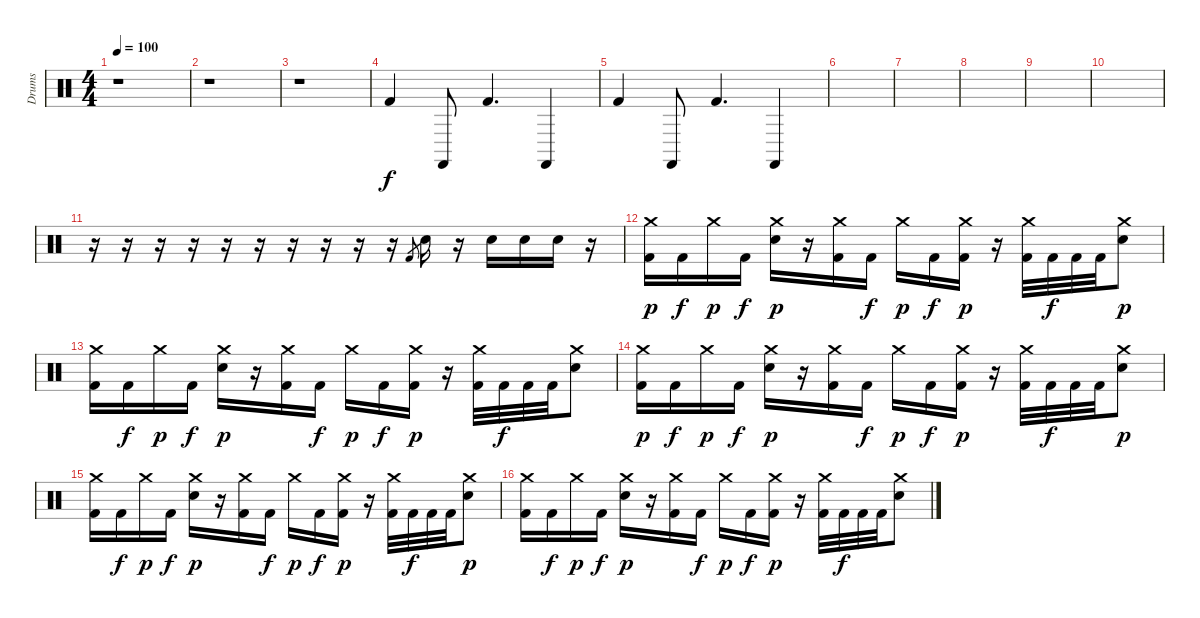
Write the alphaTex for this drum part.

\track ("Drums" "Drums") {instrument percussion}
\staff {score}
\articulation defaults
\ts (4 4)
\tempo 100
\clef neutral
\ks c
r.1{dy f} |
r.1 |
r.1 |
"Kick (hit) 2".4 "Castanets (hit)".8 "Kick (hit) 2".4{d} "Castanets (hit)".4 |
"Kick (hit) 2".4 "Castanets (hit)".8 "Kick (hit) 2".4{d} "Castanets (hit)".4 |
|
|
|
|
|
r.16 r.16 r.16 r.16 r.16 r.16 r.16 r.16 r.16 r.16 "Kick (hit) 2".8{gr} "Snare (hit) 2".16 r.16 "Snare (hit) 2".16 "Snare (hit) 2".16 "Snare (hit) 2".16 r.16 |
("Crash medium (hit)" "Kick (hit) 2").16{dy p} "Kick (hit) 2".16{dy f} "Crash medium (hit)".16{dy p} "Kick (hit) 2".16{dy f} ("Crash medium (hit)" "Snare (hit) 2").16{dy p} r.16 ("Crash medium (hit)" "Kick (hit) 2").16 "Kick (hit) 2".16{dy f} "Crash medium (hit)".16{dy p} "Kick (hit) 2".16{dy f} ("Crash medium (hit)" "Kick (hit) 2").16{dy p} r.16 ("Crash medium (hit)" "Kick (hit) 2").32 "Kick (hit) 2".32{dy f} "Kick (hit) 2".32 "Kick (hit) 2".32 ("Crash medium (hit)" "Snare (hit) 2").8{dy p} |
("Crash medium (hit)" "Kick (hit) 2").16 "Kick (hit) 2".16{dy f} "Crash medium (hit)".16{dy p} "Kick (hit) 2".16{dy f} ("Crash medium (hit)" "Snare (hit) 2").16{dy p} r.16 ("Crash medium (hit)" "Kick (hit) 2").16 "Kick (hit) 2".16{dy f} "Crash medium (hit)".16{dy p} "Kick (hit) 2".16{dy f} ("Crash medium (hit)" "Kick (hit) 2").16{dy p} r.16 ("Crash medium (hit)" "Kick (hit) 2").32 "Kick (hit) 2".32{dy f} "Kick (hit) 2".32 "Kick (hit) 2".32 ("Crash medium (hit)" "Snare (hit) 2").8 |
("Crash medium (hit)" "Kick (hit) 2").16{dy p} "Kick (hit) 2".16{dy f} "Crash medium (hit)".16{dy p} "Kick (hit) 2".16{dy f} ("Crash medium (hit)" "Snare (hit) 2").16{dy p} r.16 ("Crash medium (hit)" "Kick (hit) 2").16 "Kick (hit) 2".16{dy f} "Crash medium (hit)".16{dy p} "Kick (hit) 2".16{dy f} ("Crash medium (hit)" "Kick (hit) 2").16{dy p} r.16 ("Crash medium (hit)" "Kick (hit) 2").32 "Kick (hit) 2".32{dy f} "Kick (hit) 2".32 "Kick (hit) 2".32 ("Crash medium (hit)" "Snare (hit) 2").8{dy p} |
("Crash medium (hit)" "Kick (hit) 2").16 "Kick (hit) 2".16{dy f} "Crash medium (hit)".16{dy p} "Kick (hit) 2".16{dy f} ("Crash medium (hit)" "Snare (hit) 2").16{dy p} r.16 ("Crash medium (hit)" "Kick (hit) 2").16 "Kick (hit) 2".16{dy f} "Crash medium (hit)".16{dy p} "Kick (hit) 2".16{dy f} ("Crash medium (hit)" "Kick (hit) 2").16{dy p} r.16 ("Crash medium (hit)" "Kick (hit) 2").32 "Kick (hit) 2".32{dy f} "Kick (hit) 2".32 "Kick (hit) 2".32 ("Crash medium (hit)" "Snare (hit) 2").8{dy p} |
("Crash medium (hit)" "Kick (hit) 2").16 "Kick (hit) 2".16{dy f} "Crash medium (hit)".16{dy p} "Kick (hit) 2".16{dy f} ("Crash medium (hit)" "Snare (hit) 2").16{dy p} r.16 ("Crash medium (hit)" "Kick (hit) 2").16 "Kick (hit) 2".16{dy f} "Crash medium (hit)".16{dy p} "Kick (hit) 2".16{dy f} ("Crash medium (hit)" "Kick (hit) 2").16{dy p} r.16 ("Crash medium (hit)" "Kick (hit) 2").32 "Kick (hit) 2".32{dy f} "Kick (hit) 2".32 "Kick (hit) 2".32 ("Crash medium (hit)" "Snare (hit) 2").8
